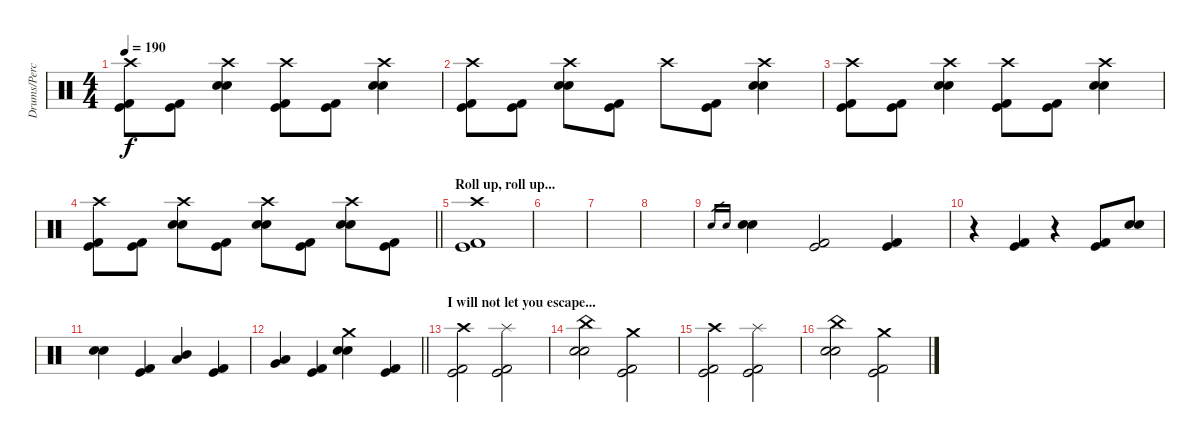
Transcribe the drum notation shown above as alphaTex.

\track ("Drums/Percussion" "Drums/Perc") {instrument percussion}
\staff {score}
\articulation defaults
\ts (4 4)
\tempo 190
\clef neutral
\ks c
("Crash high (hit)" "Kick (hit)" "Kick (hit) 2").8{dy f} ("Kick (hit)" "Kick (hit) 2").8 ("Crash high (hit)" "Electric Snare (hit)" "Snare (hit) 2").4 ("Crash high (hit)" "Kick (hit)" "Kick (hit) 2").8 ("Kick (hit)" "Kick (hit) 2").8 ("Crash high (hit)" "Electric Snare (hit)" "Snare (hit) 2").4 |
("Crash high (hit)" "Kick (hit)" "Kick (hit) 2").8 ("Kick (hit)" "Kick (hit) 2").8 ("Crash high (hit)" "Electric Snare (hit)" "Snare (hit) 2").8 ("Kick (hit)" "Kick (hit) 2").8 "Crash high (hit)".8 ("Kick (hit)" "Kick (hit) 2").8 ("Crash high (hit)" "Electric Snare (hit)" "Snare (hit) 2").4 |
("Crash high (hit)" "Kick (hit)" "Kick (hit) 2").8 ("Kick (hit)" "Kick (hit) 2").8 ("Crash high (hit)" "Electric Snare (hit)" "Snare (hit) 2").4 ("Crash high (hit)" "Kick (hit)" "Kick (hit) 2").8 ("Kick (hit)" "Kick (hit) 2").8 ("Crash high (hit)" "Electric Snare (hit)" "Snare (hit) 2").4 |
\barLineRight lightlight
("Crash high (hit)" "Kick (hit)" "Kick (hit) 2").8 ("Kick (hit)" "Kick (hit) 2").8 ("Crash high (hit)" "Electric Snare (hit)" "Snare (hit) 2").8 ("Kick (hit)" "Kick (hit) 2").8 ("Crash high (hit)" "Electric Snare (hit)" "Snare (hit) 2").8 ("Kick (hit)" "Kick (hit) 2").8 ("Crash high (hit)" "Electric Snare (hit)" "Snare (hit) 2").8 ("Kick (hit)" "Kick (hit) 2").8 |
\section ("" "Roll up, roll up...")
("Crash high (hit)" "Kick (hit)" "Kick (hit) 2").1 |
|
|
|
"Electric Snare (hit)".16{gr} "Snare (hit) 2".16{gr} ("Electric Snare (hit)" "Snare (hit) 2").4 ("Kick (hit)" "Kick (hit) 2").2 ("Kick (hit)" "Kick (hit) 2").4 |
r.4 ("Kick (hit)" "Kick (hit) 2").4 r.4 ("Kick (hit)" "Kick (hit) 2").8 ("Electric Snare (hit)" "Snare (hit) 2").8 |
("Electric Snare (hit)" "Snare (hit) 2").4 ("Kick (hit)" "Kick (hit) 2").4 ("Low Tom (hit)" "Mid Tom (hit)").4 ("Kick (hit)" "Kick (hit) 2").4 |
\barLineRight lightlight
("Low Tom (hit)" "Very Low Tom (hit)").4 ("Kick (hit)" "Kick (hit) 2").4 ("Crash medium (hit)" "Electric Snare (hit)" "Snare (hit) 2").4 ("Kick (hit)" "Kick (hit) 2").4 |
\section ("" "I will not let you escape...")
("Crash high (hit)" "Kick (hit)" "Kick (hit) 2").2 ("Splash (hit)" "Kick (hit)" "Kick (hit) 2").2 |
("China (hit)" "Electric Snare (hit)" "Snare (hit) 2").2 ("Crash medium (hit)" "Kick (hit)" "Kick (hit) 2").2 |
("Crash high (hit)" "Kick (hit)" "Kick (hit) 2").2 ("Splash (hit)" "Kick (hit)" "Kick (hit) 2").2 |
("China (hit)" "Electric Snare (hit)" "Snare (hit) 2").2 ("Crash medium (hit)" "Kick (hit)" "Kick (hit) 2").2
